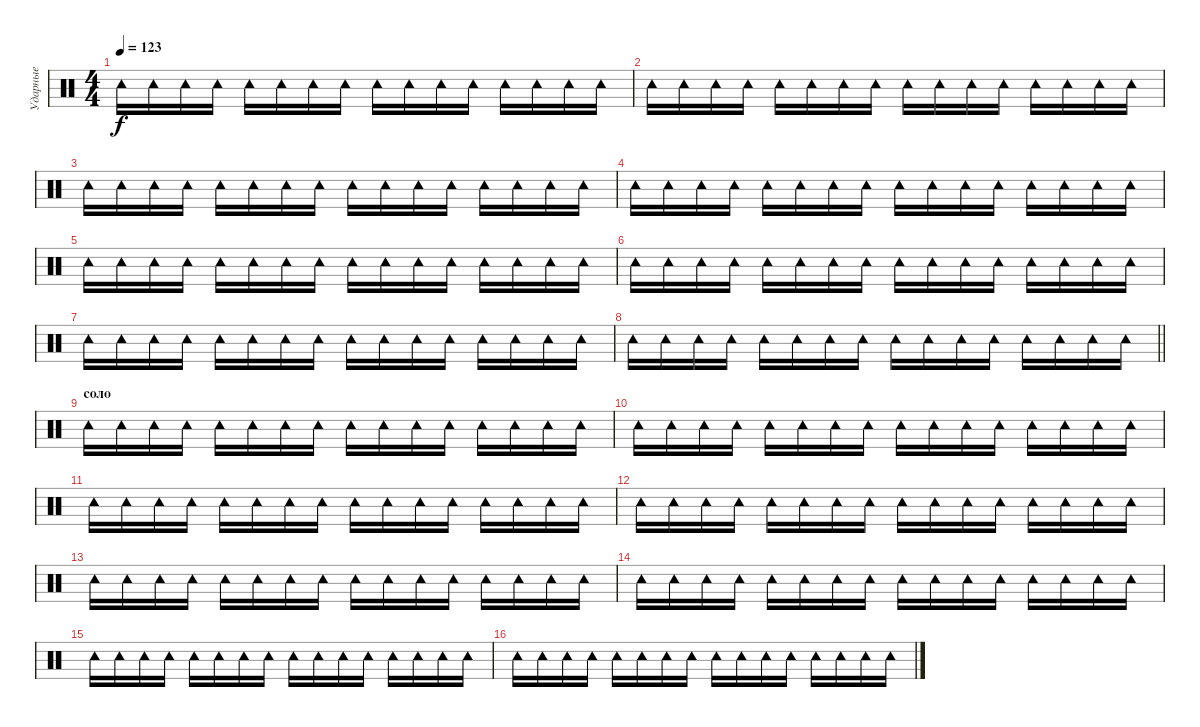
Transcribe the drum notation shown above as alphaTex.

\track ("Ударные" "Ударные") {instrument percussion}
\staff {score}
\articulation defaults
\ts (4 4)
\tempo 123
\clef neutral
\ks c "Tambourine (hit)".16{dy f} "Tambourine (hit)".16 "Tambourine (hit)".16 "Tambourine (hit)".16 "Tambourine (hit)".16 "Tambourine (hit)".16 "Tambourine (hit)".16 "Tambourine (hit)".16 "Tambourine (hit)".16 "Tambourine (hit)".16 "Tambourine (hit)".16 "Tambourine (hit)".16 "Tambourine (hit)".16 "Tambourine (hit)".16 "Tambourine (hit)".16 "Tambourine (hit)".16
|
"Tambourine (hit)".16 "Tambourine (hit)".16 "Tambourine (hit)".16 "Tambourine (hit)".16 "Tambourine (hit)".16 "Tambourine (hit)".16 "Tambourine (hit)".16 "Tambourine (hit)".16 "Tambourine (hit)".16 "Tambourine (hit)".16 "Tambourine (hit)".16 "Tambourine (hit)".16 "Tambourine (hit)".16 "Tambourine (hit)".16 "Tambourine (hit)".16 "Tambourine (hit)".16 |
"Tambourine (hit)".16 "Tambourine (hit)".16 "Tambourine (hit)".16 "Tambourine (hit)".16 "Tambourine (hit)".16 "Tambourine (hit)".16 "Tambourine (hit)".16 "Tambourine (hit)".16 "Tambourine (hit)".16 "Tambourine (hit)".16 "Tambourine (hit)".16 "Tambourine (hit)".16 "Tambourine (hit)".16 "Tambourine (hit)".16 "Tambourine (hit)".16 "Tambourine (hit)".16 |
"Tambourine (hit)".16 "Tambourine (hit)".16 "Tambourine (hit)".16 "Tambourine (hit)".16 "Tambourine (hit)".16 "Tambourine (hit)".16 "Tambourine (hit)".16 "Tambourine (hit)".16 "Tambourine (hit)".16 "Tambourine (hit)".16 "Tambourine (hit)".16 "Tambourine (hit)".16 "Tambourine (hit)".16 "Tambourine (hit)".16 "Tambourine (hit)".16 "Tambourine (hit)".16 |
"Tambourine (hit)".16 "Tambourine (hit)".16 "Tambourine (hit)".16 "Tambourine (hit)".16 "Tambourine (hit)".16 "Tambourine (hit)".16 "Tambourine (hit)".16 "Tambourine (hit)".16 "Tambourine (hit)".16 "Tambourine (hit)".16 "Tambourine (hit)".16 "Tambourine (hit)".16 "Tambourine (hit)".16 "Tambourine (hit)".16 "Tambourine (hit)".16 "Tambourine (hit)".16 |
"Tambourine (hit)".16 "Tambourine (hit)".16 "Tambourine (hit)".16 "Tambourine (hit)".16 "Tambourine (hit)".16 "Tambourine (hit)".16 "Tambourine (hit)".16 "Tambourine (hit)".16 "Tambourine (hit)".16 "Tambourine (hit)".16 "Tambourine (hit)".16 "Tambourine (hit)".16 "Tambourine (hit)".16 "Tambourine (hit)".16 "Tambourine (hit)".16 "Tambourine (hit)".16 |
"Tambourine (hit)".16 "Tambourine (hit)".16 "Tambourine (hit)".16 "Tambourine (hit)".16 "Tambourine (hit)".16 "Tambourine (hit)".16 "Tambourine (hit)".16 "Tambourine (hit)".16 "Tambourine (hit)".16 "Tambourine (hit)".16 "Tambourine (hit)".16 "Tambourine (hit)".16 "Tambourine (hit)".16 "Tambourine (hit)".16 "Tambourine (hit)".16 "Tambourine (hit)".16 |
\barLineRight lightlight "Tambourine (hit)".16 "Tambourine (hit)".16 "Tambourine (hit)".16 "Tambourine (hit)".16 "Tambourine (hit)".16 "Tambourine (hit)".16 "Tambourine (hit)".16 "Tambourine (hit)".16 "Tambourine (hit)".16 "Tambourine (hit)".16 "Tambourine (hit)".16 "Tambourine (hit)".16 "Tambourine (hit)".16 "Tambourine (hit)".16 "Tambourine (hit)".16 "Tambourine (hit)".16
|
\section ("" "соло")
"Tambourine (hit)".16 "Tambourine (hit)".16 "Tambourine (hit)".16 "Tambourine (hit)".16 "Tambourine (hit)".16 "Tambourine (hit)".16 "Tambourine (hit)".16 "Tambourine (hit)".16 "Tambourine (hit)".16 "Tambourine (hit)".16 "Tambourine (hit)".16 "Tambourine (hit)".16 "Tambourine (hit)".16 "Tambourine (hit)".16 "Tambourine (hit)".16 "Tambourine (hit)".16 |
"Tambourine (hit)".16 "Tambourine (hit)".16 "Tambourine (hit)".16 "Tambourine (hit)".16 "Tambourine (hit)".16 "Tambourine (hit)".16 "Tambourine (hit)".16 "Tambourine (hit)".16 "Tambourine (hit)".16 "Tambourine (hit)".16 "Tambourine (hit)".16 "Tambourine (hit)".16 "Tambourine (hit)".16 "Tambourine (hit)".16 "Tambourine (hit)".16 "Tambourine (hit)".16 |
"Tambourine (hit)".16 "Tambourine (hit)".16 "Tambourine (hit)".16 "Tambourine (hit)".16 "Tambourine (hit)".16 "Tambourine (hit)".16 "Tambourine (hit)".16 "Tambourine (hit)".16 "Tambourine (hit)".16 "Tambourine (hit)".16 "Tambourine (hit)".16 "Tambourine (hit)".16 "Tambourine (hit)".16 "Tambourine (hit)".16 "Tambourine (hit)".16 "Tambourine (hit)".16 |
"Tambourine (hit)".16 "Tambourine (hit)".16 "Tambourine (hit)".16 "Tambourine (hit)".16 "Tambourine (hit)".16 "Tambourine (hit)".16 "Tambourine (hit)".16 "Tambourine (hit)".16 "Tambourine (hit)".16 "Tambourine (hit)".16 "Tambourine (hit)".16 "Tambourine (hit)".16 "Tambourine (hit)".16 "Tambourine (hit)".16 "Tambourine (hit)".16 "Tambourine (hit)".16 |
"Tambourine (hit)".16 "Tambourine (hit)".16 "Tambourine (hit)".16 "Tambourine (hit)".16 "Tambourine (hit)".16 "Tambourine (hit)".16 "Tambourine (hit)".16 "Tambourine (hit)".16 "Tambourine (hit)".16 "Tambourine (hit)".16 "Tambourine (hit)".16 "Tambourine (hit)".16 "Tambourine (hit)".16 "Tambourine (hit)".16 "Tambourine (hit)".16 "Tambourine (hit)".16 |
"Tambourine (hit)".16 "Tambourine (hit)".16 "Tambourine (hit)".16 "Tambourine (hit)".16 "Tambourine (hit)".16 "Tambourine (hit)".16 "Tambourine (hit)".16 "Tambourine (hit)".16 "Tambourine (hit)".16 "Tambourine (hit)".16 "Tambourine (hit)".16 "Tambourine (hit)".16 "Tambourine (hit)".16 "Tambourine (hit)".16 "Tambourine (hit)".16 "Tambourine (hit)".16 |
"Tambourine (hit)".16 "Tambourine (hit)".16 "Tambourine (hit)".16 "Tambourine (hit)".16 "Tambourine (hit)".16 "Tambourine (hit)".16 "Tambourine (hit)".16 "Tambourine (hit)".16 "Tambourine (hit)".16 "Tambourine (hit)".16 "Tambourine (hit)".16 "Tambourine (hit)".16 "Tambourine (hit)".16 "Tambourine (hit)".16 "Tambourine (hit)".16 "Tambourine (hit)".16 |
"Tambourine (hit)".16 "Tambourine (hit)".16 "Tambourine (hit)".16 "Tambourine (hit)".16 "Tambourine (hit)".16 "Tambourine (hit)".16 "Tambourine (hit)".16 "Tambourine (hit)".16 "Tambourine (hit)".16 "Tambourine (hit)".16 "Tambourine (hit)".16 "Tambourine (hit)".16 "Tambourine (hit)".16 "Tambourine (hit)".16 "Tambourine (hit)".16 "Tambourine (hit)".16
